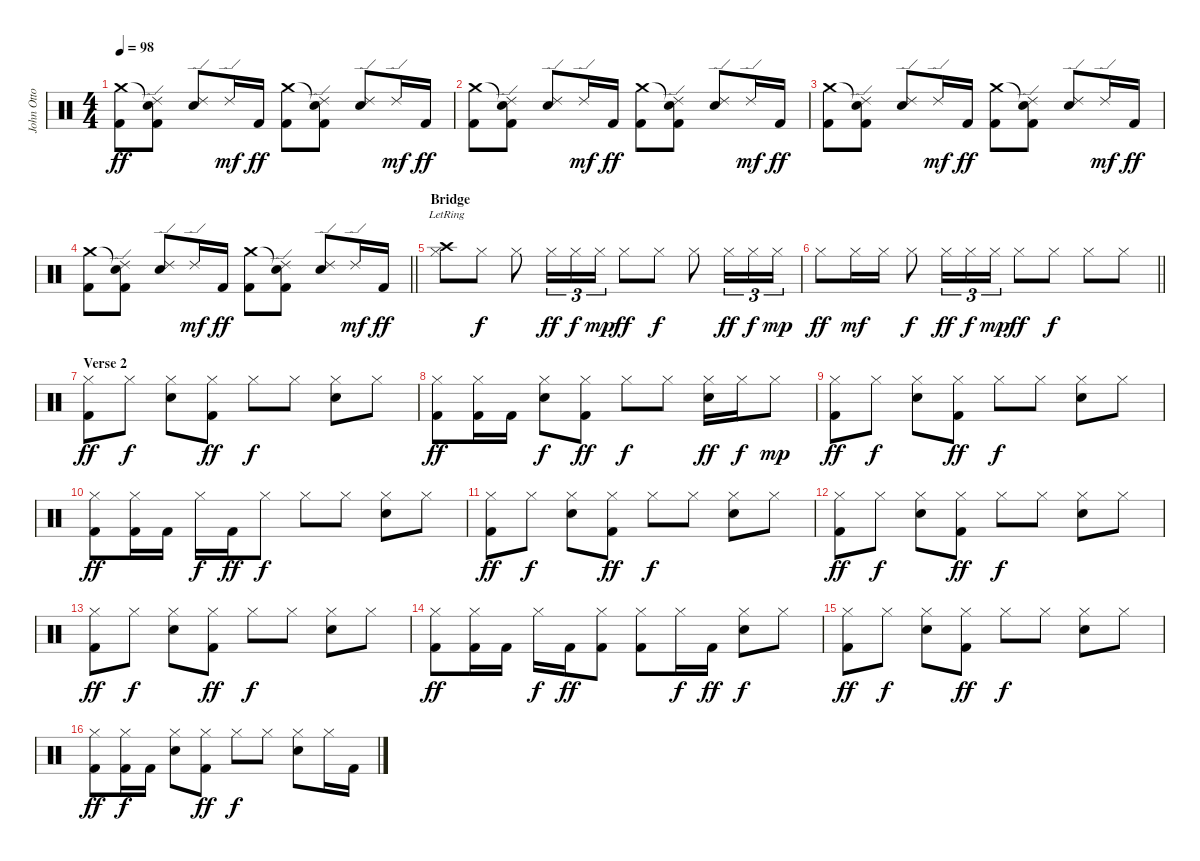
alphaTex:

\track ("John Otto (Drums)" "John Otto ") {instrument percussion}
\staff {score}
\articulation defaults
\ts (4 4)
\tempo 98
\clef neutral
\ks c
("Crash medium (hit)" "Kick (hit) 2").8{dy ff} ("Snare (hit)"{t} "Ride (edge) 2" "Kick (hit) 2").8 ("Ride (edge) 2" "Snare (hit) 2").8 "Ride (edge) 2".16{dy mf} "Kick (hit) 2".16{dy ff} ("Crash medium (hit)" "Kick (hit) 2").8 ("Snare (hit)"{t} "Ride (edge) 2" "Kick (hit) 2").8 ("Ride (edge) 2" "Snare (hit) 2").8 "Ride (edge) 2".16{dy mf} "Kick (hit) 2".16{dy ff} |
("Crash medium (hit)" "Kick (hit) 2").8 ("Snare (hit)"{t} "Ride (edge) 2" "Kick (hit) 2").8 ("Ride (edge) 2" "Snare (hit) 2").8 "Ride (edge) 2".16{dy mf} "Kick (hit) 2".16{dy ff} ("Crash medium (hit)" "Kick (hit) 2").8 ("Snare (hit)"{t} "Ride (edge) 2" "Kick (hit) 2").8 ("Ride (edge) 2" "Snare (hit) 2").8 "Ride (edge) 2".16{dy mf} "Kick (hit) 2".16{dy ff} |
("Crash medium (hit)" "Kick (hit) 2").8 ("Snare (hit)"{t} "Ride (edge) 2" "Kick (hit) 2").8 ("Ride (edge) 2" "Snare (hit) 2").8 "Ride (edge) 2".16{dy mf} "Kick (hit) 2".16{dy ff} ("Crash medium (hit)" "Kick (hit) 2").8 ("Snare (hit)"{t} "Ride (edge) 2" "Kick (hit) 2").8 ("Ride (edge) 2" "Snare (hit) 2").8 "Ride (edge) 2".16{dy mf} "Kick (hit) 2".16{dy ff} |
\barLineRight lightlight
("Crash medium (hit)" "Kick (hit) 2").8 ("Snare (hit)"{t} "Ride (edge) 2" "Kick (hit) 2").8 ("Ride (edge) 2" "Snare (hit) 2").8 "Ride (edge) 2".16{dy mf} "Kick (hit) 2".16{dy ff} ("Crash medium (hit)" "Kick (hit) 2").8 ("Snare (hit)"{t} "Ride (edge) 2" "Kick (hit) 2").8 ("Ride (edge) 2" "Snare (hit) 2").8 "Ride (edge) 2".16{dy mf} "Kick (hit) 2".16{dy ff} |
\section ("" "Bridge")
("Crash high (hit)"{lr} "Hi-Hat (closed)").8 "Hi-Hat (closed)".8{dy f} "Hi-Hat (closed)".8 "Hi-Hat (closed)".16{tu (3 2) dy ff} "Hi-Hat (closed)".16{tu (3 2) dy f} "Hi-Hat (closed)".16{tu (3 2) dy mp} "Hi-Hat (closed)".8{dy ff} "Hi-Hat (closed)".8{dy f} "Hi-Hat (closed)".8 "Hi-Hat (closed)".16{tu (3 2) dy ff} "Hi-Hat (closed)".16{tu (3 2) dy f} "Hi-Hat (closed)".16{tu (3 2) dy mp} |
\barLineRight lightlight "Hi-Hat (closed)".8{dy ff} "Hi-Hat (closed)".16{dy mf} "Hi-Hat (closed)".16 "Hi-Hat (closed)".8{dy f} "Hi-Hat (closed)".16{tu (3 2) dy ff} "Hi-Hat (closed)".16{tu (3 2) dy f} "Hi-Hat (closed)".16{tu (3 2) dy mp} "Hi-Hat (closed)".8{dy ff} "Hi-Hat (closed)".8{dy f} "Hi-Hat (closed)".8 "Hi-Hat (closed)".8
|
\section ("" "Verse 2")
("Hi-Hat (closed)" "Kick (hit) 2").8{dy ff} "Hi-Hat (closed)".8{dy f} ("Hi-Hat (closed)" "Snare (hit) 2").8 ("Hi-Hat (closed)" "Kick (hit) 2").8{dy ff} "Hi-Hat (closed)".8{dy f} "Hi-Hat (closed)".8 ("Hi-Hat (closed)" "Snare (hit) 2").8 "Hi-Hat (closed)".8 |
("Hi-Hat (closed)" "Kick (hit) 2").8{dy ff} ("Hi-Hat (closed)" "Kick (hit) 2").16 "Kick (hit) 2".16 ("Hi-Hat (closed)" "Snare (hit) 2").8{dy f} ("Hi-Hat (closed)" "Kick (hit) 2").8{dy ff} "Hi-Hat (closed)".8{dy f} "Hi-Hat (closed)".8 ("Hi-Hat (closed)" "Snare (hit) 2").16{dy ff} "Hi-Hat (closed)".16{dy f} "Hi-Hat (closed)".8{dy mp} |
("Hi-Hat (closed)" "Kick (hit) 2").8{dy ff} "Hi-Hat (closed)".8{dy f} ("Hi-Hat (closed)" "Snare (hit) 2").8 ("Hi-Hat (closed)" "Kick (hit) 2").8{dy ff} "Hi-Hat (closed)".8{dy f} "Hi-Hat (closed)".8 ("Hi-Hat (closed)" "Snare (hit) 2").8 "Hi-Hat (closed)".8 |
("Hi-Hat (closed)" "Kick (hit) 2").8{dy ff} ("Hi-Hat (closed)" "Kick (hit) 2").16 "Kick (hit) 2".16 "Hi-Hat (closed)".16{dy f} "Kick (hit) 2".16{dy ff} "Hi-Hat (closed)".8{dy f} "Hi-Hat (closed)".8 "Hi-Hat (closed)".8 ("Hi-Hat (closed)" "Snare (hit) 2").8 "Hi-Hat (closed)".8 |
("Hi-Hat (closed)" "Kick (hit) 2").8{dy ff} "Hi-Hat (closed)".8{dy f} ("Hi-Hat (closed)" "Snare (hit) 2").8 ("Hi-Hat (closed)" "Kick (hit) 2").8{dy ff} "Hi-Hat (closed)".8{dy f} "Hi-Hat (closed)".8 ("Hi-Hat (closed)" "Snare (hit) 2").8 "Hi-Hat (closed)".8 |
("Hi-Hat (closed)" "Kick (hit) 2").8{dy ff} "Hi-Hat (closed)".8{dy f} ("Hi-Hat (closed)" "Snare (hit) 2").8 ("Hi-Hat (closed)" "Kick (hit) 2").8{dy ff} "Hi-Hat (closed)".8{dy f} "Hi-Hat (closed)".8 ("Hi-Hat (closed)" "Snare (hit) 2").8 "Hi-Hat (closed)".8 |
("Hi-Hat (closed)" "Kick (hit) 2").8{dy ff} "Hi-Hat (closed)".8{dy f} ("Hi-Hat (closed)" "Snare (hit) 2").8 ("Hi-Hat (closed)" "Kick (hit) 2").8{dy ff} "Hi-Hat (closed)".8{dy f} "Hi-Hat (closed)".8 ("Hi-Hat (closed)" "Snare (hit) 2").8 "Hi-Hat (closed)".8 |
("Hi-Hat (closed)" "Kick (hit) 2").8{dy ff} ("Hi-Hat (closed)" "Kick (hit) 2").16 "Kick (hit) 2".16 "Hi-Hat (closed)".16{dy f} "Kick (hit) 2".16{dy ff} ("Hi-Hat (closed)" "Kick (hit) 2").8 ("Hi-Hat (closed)" "Kick (hit) 2").8 "Hi-Hat (closed)".16{dy f} "Kick (hit) 2".16{dy ff} ("Hi-Hat (closed)" "Snare (hit) 2").8{dy f} "Hi-Hat (closed)".8 |
("Hi-Hat (closed)" "Kick (hit) 2").8{dy ff} "Hi-Hat (closed)".8{dy f} ("Hi-Hat (closed)" "Snare (hit) 2").8 ("Hi-Hat (closed)" "Kick (hit) 2").8{dy ff} "Hi-Hat (closed)".8{dy f} "Hi-Hat (closed)".8 ("Hi-Hat (closed)" "Snare (hit) 2").8 "Hi-Hat (closed)".8 |
("Hi-Hat (closed)" "Kick (hit) 2").8{dy ff} ("Hi-Hat (closed)" "Kick (hit) 2").16{dy f} "Kick (hit) 2".16 ("Hi-Hat (closed)" "Snare (hit) 2").8 ("Hi-Hat (closed)" "Kick (hit) 2").8{dy ff} "Hi-Hat (closed)".8{dy f} "Hi-Hat (closed)".8 ("Hi-Hat (closed)" "Snare (hit) 2").8 "Hi-Hat (closed)".16 "Kick (hit) 2".16
